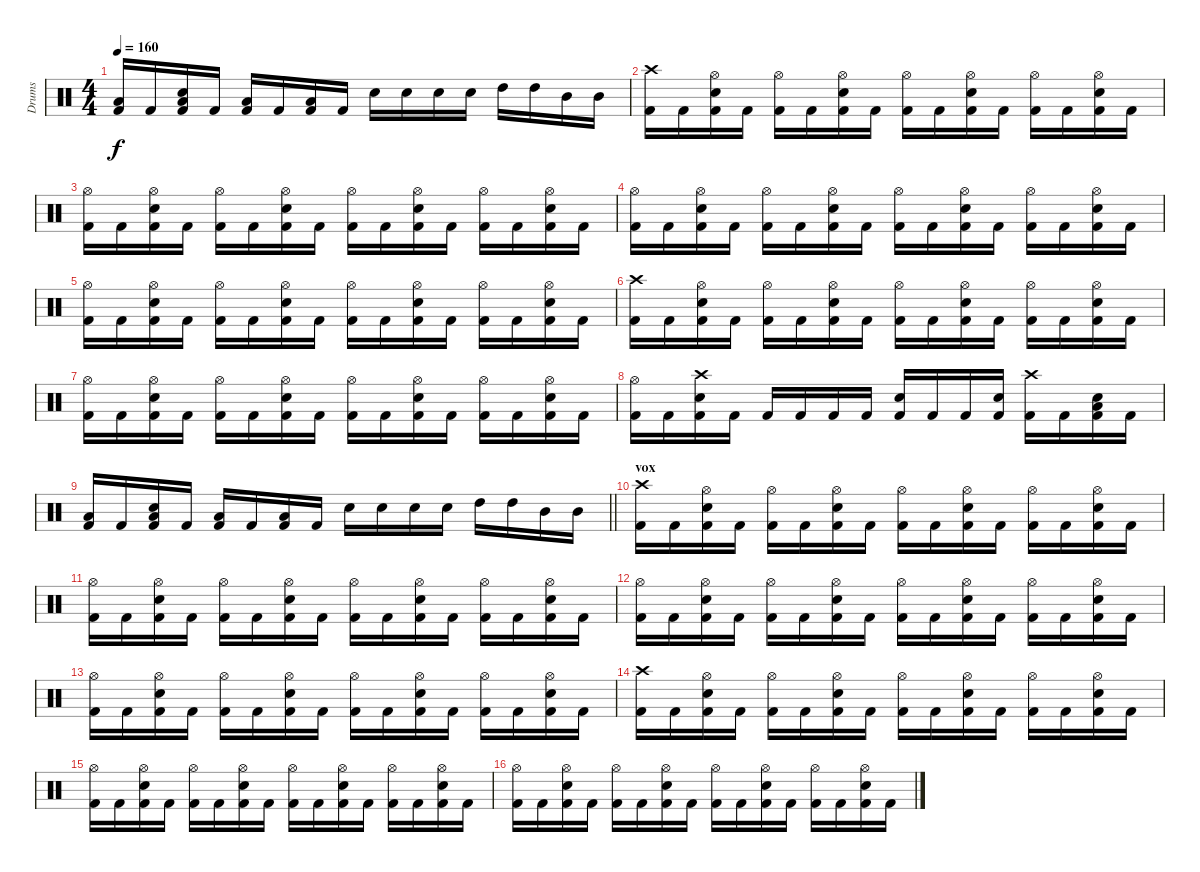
\track ("Drums" "Drums") {instrument percussion}
\staff {score}
\articulation defaults
\ts (4 4)
\tempo 160
\clef neutral
\ks c
("Low Tom (hit)" "Kick (hit) 2").16{dy f} "Kick (hit) 2".16 ("Low Tom (hit)" "Snare (hit) 2" "Kick (hit) 2").16 "Kick (hit) 2".16 ("Low Tom (hit)" "Kick (hit) 2").16 "Kick (hit) 2".16 ("Low Tom (hit)" "Kick (hit) 2").16 "Kick (hit) 2".16 "Snare (hit) 2".16 "Snare (hit) 2".16 "Snare (hit) 2".16 "Snare (hit) 2".16 "High Tom (hit)".16 "High Tom (hit)".16 "Mid Tom (hit)".16 "Mid Tom (hit)".16 |
("Crash high (hit)" "Kick (hit) 2").16 "Kick (hit) 2".16 ("Hi-Hat (open)" "Snare (hit) 2" "Kick (hit) 2").16 "Kick (hit) 2".16 ("Hi-Hat (open)" "Kick (hit) 2").16 "Kick (hit) 2".16 ("Hi-Hat (open)" "Snare (hit) 2" "Kick (hit) 2").16 "Kick (hit) 2".16 ("Hi-Hat (open)" "Kick (hit) 2").16 "Kick (hit) 2".16 ("Hi-Hat (open)" "Snare (hit) 2" "Kick (hit) 2").16 "Kick (hit) 2".16 ("Hi-Hat (open)" "Kick (hit) 2").16 "Kick (hit) 2".16 ("Hi-Hat (open)" "Snare (hit) 2" "Kick (hit) 2").16 "Kick (hit) 2".16 |
("Hi-Hat (open)" "Kick (hit) 2").16 "Kick (hit) 2".16 ("Hi-Hat (open)" "Snare (hit) 2" "Kick (hit) 2").16 "Kick (hit) 2".16 ("Hi-Hat (open)" "Kick (hit) 2").16 "Kick (hit) 2".16 ("Hi-Hat (open)" "Snare (hit) 2" "Kick (hit) 2").16 "Kick (hit) 2".16 ("Hi-Hat (open)" "Kick (hit) 2").16 "Kick (hit) 2".16 ("Hi-Hat (open)" "Snare (hit) 2" "Kick (hit) 2").16 "Kick (hit) 2".16 ("Hi-Hat (open)" "Kick (hit) 2").16 "Kick (hit) 2".16 ("Hi-Hat (open)" "Snare (hit) 2" "Kick (hit) 2").16 "Kick (hit) 2".16 |
("Hi-Hat (open)" "Kick (hit) 2").16 "Kick (hit) 2".16 ("Hi-Hat (open)" "Snare (hit) 2" "Kick (hit) 2").16 "Kick (hit) 2".16 ("Hi-Hat (open)" "Kick (hit) 2").16 "Kick (hit) 2".16 ("Hi-Hat (open)" "Snare (hit) 2" "Kick (hit) 2").16 "Kick (hit) 2".16 ("Hi-Hat (open)" "Kick (hit) 2").16 "Kick (hit) 2".16 ("Hi-Hat (open)" "Snare (hit) 2" "Kick (hit) 2").16 "Kick (hit) 2".16 ("Hi-Hat (open)" "Kick (hit) 2").16 "Kick (hit) 2".16 ("Hi-Hat (open)" "Snare (hit) 2" "Kick (hit) 2").16 "Kick (hit) 2".16 |
("Hi-Hat (open)" "Kick (hit) 2").16 "Kick (hit) 2".16 ("Hi-Hat (open)" "Snare (hit) 2" "Kick (hit) 2").16 "Kick (hit) 2".16 ("Hi-Hat (open)" "Kick (hit) 2").16 "Kick (hit) 2".16 ("Hi-Hat (open)" "Snare (hit) 2" "Kick (hit) 2").16 "Kick (hit) 2".16 ("Hi-Hat (open)" "Kick (hit) 2").16 "Kick (hit) 2".16 ("Hi-Hat (open)" "Snare (hit) 2" "Kick (hit) 2").16 "Kick (hit) 2".16 ("Hi-Hat (open)" "Kick (hit) 2").16 "Kick (hit) 2".16 ("Hi-Hat (open)" "Snare (hit) 2" "Kick (hit) 2").16 "Kick (hit) 2".16 |
("Crash high (hit)" "Kick (hit) 2").16 "Kick (hit) 2".16 ("Hi-Hat (open)" "Snare (hit) 2" "Kick (hit) 2").16 "Kick (hit) 2".16 ("Hi-Hat (open)" "Kick (hit) 2").16 "Kick (hit) 2".16 ("Hi-Hat (open)" "Snare (hit) 2" "Kick (hit) 2").16 "Kick (hit) 2".16 ("Hi-Hat (open)" "Kick (hit) 2").16 "Kick (hit) 2".16 ("Hi-Hat (open)" "Snare (hit) 2" "Kick (hit) 2").16 "Kick (hit) 2".16 ("Hi-Hat (open)" "Kick (hit) 2").16 "Kick (hit) 2".16 ("Hi-Hat (open)" "Snare (hit) 2" "Kick (hit) 2").16 "Kick (hit) 2".16 |
("Hi-Hat (open)" "Kick (hit) 2").16 "Kick (hit) 2".16 ("Hi-Hat (open)" "Snare (hit) 2" "Kick (hit) 2").16 "Kick (hit) 2".16 ("Hi-Hat (open)" "Kick (hit) 2").16 "Kick (hit) 2".16 ("Hi-Hat (open)" "Snare (hit) 2" "Kick (hit) 2").16 "Kick (hit) 2".16 ("Hi-Hat (open)" "Kick (hit) 2").16 "Kick (hit) 2".16 ("Hi-Hat (open)" "Snare (hit) 2" "Kick (hit) 2").16 "Kick (hit) 2".16 ("Hi-Hat (open)" "Kick (hit) 2").16 "Kick (hit) 2".16 ("Hi-Hat (open)" "Snare (hit) 2" "Kick (hit) 2").16 "Kick (hit) 2".16 |
("Hi-Hat (open)" "Kick (hit) 2").16 "Kick (hit) 2".16 ("Crash high (hit)" "Snare (hit) 2" "Kick (hit) 2").16 "Kick (hit) 2".16 "Kick (hit) 2".16 "Kick (hit) 2".16 "Kick (hit) 2".16 "Kick (hit) 2".16 ("Snare (hit) 2" "Kick (hit) 2").16 "Kick (hit) 2".16 "Kick (hit) 2".16 ("Snare (hit) 2" "Kick (hit) 2").16 ("Crash high (hit)" "Kick (hit) 2").16 "Kick (hit) 2".16 ("Low Tom (hit)" "Snare (hit) 2" "Kick (hit) 2").16 "Kick (hit) 2".16 |
\barLineRight lightlight
("Low Tom (hit)" "Kick (hit) 2").16 "Kick (hit) 2".16 ("Low Tom (hit)" "Snare (hit) 2" "Kick (hit) 2").16 "Kick (hit) 2".16 ("Low Tom (hit)" "Kick (hit) 2").16 "Kick (hit) 2".16 ("Low Tom (hit)" "Kick (hit) 2").16 "Kick (hit) 2".16 "Snare (hit) 2".16 "Snare (hit) 2".16 "Snare (hit) 2".16 "Snare (hit) 2".16 "High Tom (hit)".16 "High Tom (hit)".16 "Mid Tom (hit)".16 "Mid Tom (hit)".16 |
\section ("" "vox")
("Crash high (hit)" "Kick (hit) 2").16 "Kick (hit) 2".16 ("Hi-Hat (open)" "Snare (hit) 2" "Kick (hit) 2").16 "Kick (hit) 2".16 ("Hi-Hat (open)" "Kick (hit) 2").16 "Kick (hit) 2".16 ("Hi-Hat (open)" "Snare (hit) 2" "Kick (hit) 2").16 "Kick (hit) 2".16 ("Hi-Hat (open)" "Kick (hit) 2").16 "Kick (hit) 2".16 ("Hi-Hat (open)" "Snare (hit) 2" "Kick (hit) 2").16 "Kick (hit) 2".16 ("Hi-Hat (open)" "Kick (hit) 2").16 "Kick (hit) 2".16 ("Hi-Hat (open)" "Snare (hit) 2" "Kick (hit) 2").16 "Kick (hit) 2".16 |
("Hi-Hat (open)" "Kick (hit) 2").16 "Kick (hit) 2".16 ("Hi-Hat (open)" "Snare (hit) 2" "Kick (hit) 2").16 "Kick (hit) 2".16 ("Hi-Hat (open)" "Kick (hit) 2").16 "Kick (hit) 2".16 ("Hi-Hat (open)" "Snare (hit) 2" "Kick (hit) 2").16 "Kick (hit) 2".16 ("Hi-Hat (open)" "Kick (hit) 2").16 "Kick (hit) 2".16 ("Hi-Hat (open)" "Snare (hit) 2" "Kick (hit) 2").16 "Kick (hit) 2".16 ("Hi-Hat (open)" "Kick (hit) 2").16 "Kick (hit) 2".16 ("Hi-Hat (open)" "Snare (hit) 2" "Kick (hit) 2").16 "Kick (hit) 2".16 |
("Hi-Hat (open)" "Kick (hit) 2").16 "Kick (hit) 2".16 ("Hi-Hat (open)" "Snare (hit) 2" "Kick (hit) 2").16 "Kick (hit) 2".16 ("Hi-Hat (open)" "Kick (hit) 2").16 "Kick (hit) 2".16 ("Hi-Hat (open)" "Snare (hit) 2" "Kick (hit) 2").16 "Kick (hit) 2".16 ("Hi-Hat (open)" "Kick (hit) 2").16 "Kick (hit) 2".16 ("Hi-Hat (open)" "Snare (hit) 2" "Kick (hit) 2").16 "Kick (hit) 2".16 ("Hi-Hat (open)" "Kick (hit) 2").16 "Kick (hit) 2".16 ("Hi-Hat (open)" "Snare (hit) 2" "Kick (hit) 2").16 "Kick (hit) 2".16 |
("Hi-Hat (open)" "Kick (hit) 2").16 "Kick (hit) 2".16 ("Hi-Hat (open)" "Snare (hit) 2" "Kick (hit) 2").16 "Kick (hit) 2".16 ("Hi-Hat (open)" "Kick (hit) 2").16 "Kick (hit) 2".16 ("Hi-Hat (open)" "Snare (hit) 2" "Kick (hit) 2").16 "Kick (hit) 2".16 ("Hi-Hat (open)" "Kick (hit) 2").16 "Kick (hit) 2".16 ("Hi-Hat (open)" "Snare (hit) 2" "Kick (hit) 2").16 "Kick (hit) 2".16 ("Hi-Hat (open)" "Kick (hit) 2").16 "Kick (hit) 2".16 ("Hi-Hat (open)" "Snare (hit) 2" "Kick (hit) 2").16 "Kick (hit) 2".16 |
("Crash high (hit)" "Kick (hit) 2").16 "Kick (hit) 2".16 ("Hi-Hat (open)" "Snare (hit) 2" "Kick (hit) 2").16 "Kick (hit) 2".16 ("Hi-Hat (open)" "Kick (hit) 2").16 "Kick (hit) 2".16 ("Hi-Hat (open)" "Snare (hit) 2" "Kick (hit) 2").16 "Kick (hit) 2".16 ("Hi-Hat (open)" "Kick (hit) 2").16 "Kick (hit) 2".16 ("Hi-Hat (open)" "Snare (hit) 2" "Kick (hit) 2").16 "Kick (hit) 2".16 ("Hi-Hat (open)" "Kick (hit) 2").16 "Kick (hit) 2".16 ("Hi-Hat (open)" "Snare (hit) 2" "Kick (hit) 2").16 "Kick (hit) 2".16 |
("Hi-Hat (open)" "Kick (hit) 2").16 "Kick (hit) 2".16 ("Hi-Hat (open)" "Snare (hit) 2" "Kick (hit) 2").16 "Kick (hit) 2".16 ("Hi-Hat (open)" "Kick (hit) 2").16 "Kick (hit) 2".16 ("Hi-Hat (open)" "Snare (hit) 2" "Kick (hit) 2").16 "Kick (hit) 2".16 ("Hi-Hat (open)" "Kick (hit) 2").16 "Kick (hit) 2".16 ("Hi-Hat (open)" "Snare (hit) 2" "Kick (hit) 2").16 "Kick (hit) 2".16 ("Hi-Hat (open)" "Kick (hit) 2").16 "Kick (hit) 2".16 ("Hi-Hat (open)" "Snare (hit) 2" "Kick (hit) 2").16 "Kick (hit) 2".16 |
("Hi-Hat (open)" "Kick (hit) 2").16 "Kick (hit) 2".16 ("Hi-Hat (open)" "Snare (hit) 2" "Kick (hit) 2").16 "Kick (hit) 2".16 ("Hi-Hat (open)" "Kick (hit) 2").16 "Kick (hit) 2".16 ("Hi-Hat (open)" "Snare (hit) 2" "Kick (hit) 2").16 "Kick (hit) 2".16 ("Hi-Hat (open)" "Kick (hit) 2").16 "Kick (hit) 2".16 ("Hi-Hat (open)" "Snare (hit) 2" "Kick (hit) 2").16 "Kick (hit) 2".16 ("Hi-Hat (open)" "Kick (hit) 2").16 "Kick (hit) 2".16 ("Hi-Hat (open)" "Snare (hit) 2" "Kick (hit) 2").16 "Kick (hit) 2".16
